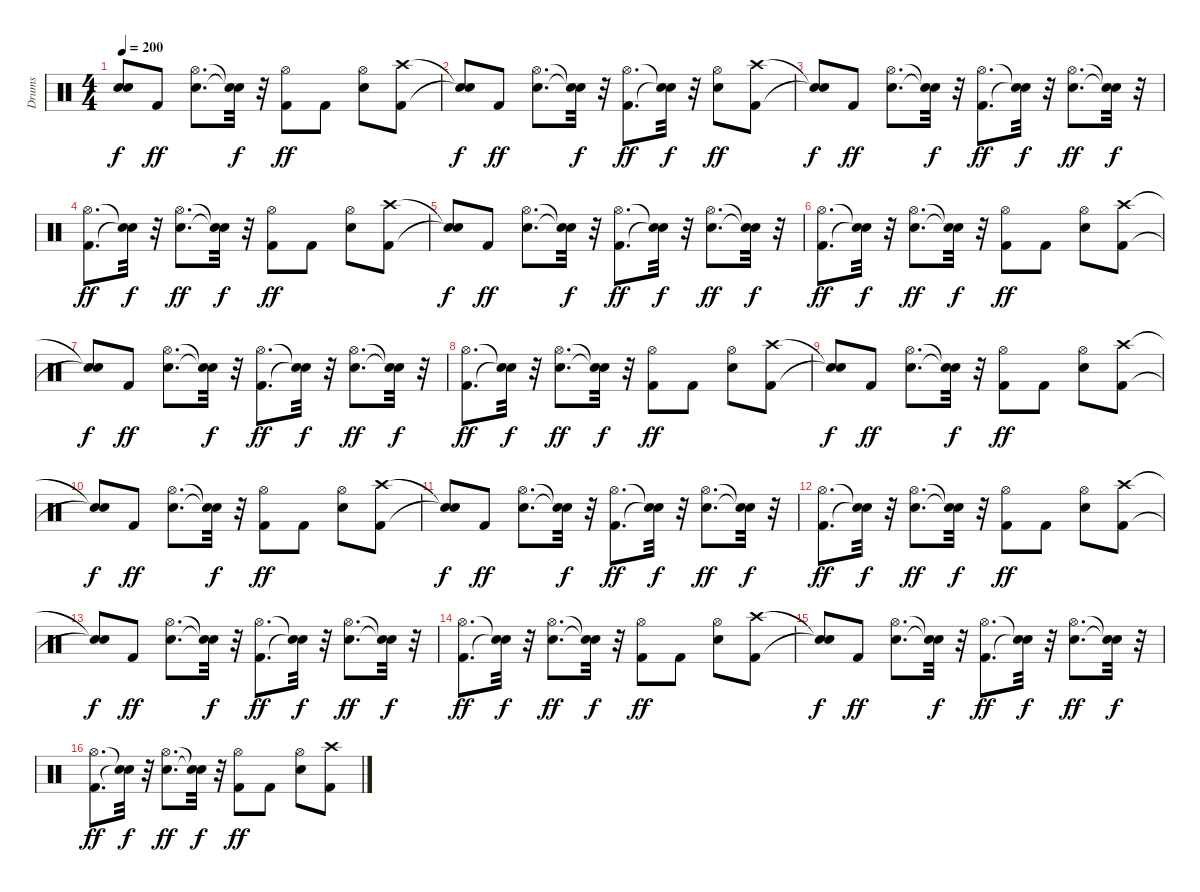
\track ("Drums" "Drums") {instrument percussion}
\staff {score}
\articulation defaults
\ts (4 4)
\tempo 200
\clef neutral
\ks c
("Snare (hit)"{t} "Snare (hit)"{t}).8{dy f} "Kick (hit) 2".8{dy ff} ("Snare (hit) 2" "Hi-Hat (open)").8{d} ("Snare (hit)"{t} "Snare (hit)"{t}).32{dy f} r.32 ("Kick (hit) 2" "Hi-Hat (open)").8{dy ff} "Kick (hit) 2".8 ("Snare (hit) 2" "Hi-Hat (open)").8 ("Kick (hit) 2" "Crash high (hit)").8 |
("Snare (hit)"{t} "Snare (hit)"{t}).8{dy f} "Kick (hit) 2".8{dy ff} ("Snare (hit) 2" "Hi-Hat (open)").8{d} ("Snare (hit)"{t} "Snare (hit)"{t}).32{dy f} r.32 ("Kick (hit) 2" "Hi-Hat (open)").8{d dy ff} ("Snare (hit)"{t} "Snare (hit)"{t}).32{dy f} r.32 ("Snare (hit) 2" "Hi-Hat (open)").8{dy ff} ("Kick (hit) 2" "Crash high (hit)").8 |
("Snare (hit)"{t} "Snare (hit)"{t}).8{dy f} "Kick (hit) 2".8{dy ff} ("Snare (hit) 2" "Hi-Hat (open)").8{d} ("Snare (hit)"{t} "Snare (hit)"{t}).32{dy f} r.32 ("Kick (hit) 2" "Hi-Hat (open)").8{d dy ff} ("Snare (hit)"{t} "Snare (hit)"{t}).32{dy f} r.32 ("Snare (hit) 2" "Hi-Hat (open)").8{d dy ff} ("Snare (hit)"{t} "Snare (hit)"{t}).32{dy f} r.32 |
("Kick (hit) 2" "Hi-Hat (open)").8{d dy ff} ("Snare (hit)"{t} "Snare (hit)"{t}).32{dy f} r.32 ("Snare (hit) 2" "Hi-Hat (open)").8{d dy ff} ("Snare (hit)"{t} "Snare (hit)"{t}).32{dy f} r.32 ("Kick (hit) 2" "Hi-Hat (open)").8{dy ff} "Kick (hit) 2".8 ("Snare (hit) 2" "Hi-Hat (open)").8 ("Kick (hit) 2" "Crash high (hit)").8 |
("Snare (hit)"{t} "Snare (hit)"{t}).8{dy f} "Kick (hit) 2".8{dy ff} ("Snare (hit) 2" "Hi-Hat (open)").8{d} ("Snare (hit)"{t} "Snare (hit)"{t}).32{dy f} r.32 ("Kick (hit) 2" "Hi-Hat (open)").8{d dy ff} ("Snare (hit)"{t} "Snare (hit)"{t}).32{dy f} r.32 ("Snare (hit) 2" "Hi-Hat (open)").8{d dy ff} ("Snare (hit)"{t} "Snare (hit)"{t}).32{dy f} r.32 |
("Kick (hit) 2" "Hi-Hat (open)").8{d dy ff} ("Snare (hit)"{t} "Snare (hit)"{t}).32{dy f} r.32 ("Snare (hit) 2" "Hi-Hat (open)").8{d dy ff} ("Snare (hit)"{t} "Snare (hit)"{t}).32{dy f} r.32 ("Kick (hit) 2" "Hi-Hat (open)").8{dy ff} "Kick (hit) 2".8 ("Snare (hit) 2" "Hi-Hat (open)").8 ("Kick (hit) 2" "Crash high (hit)").8 |
("Snare (hit)"{t} "Snare (hit)"{t}).8{dy f} "Kick (hit) 2".8{dy ff} ("Snare (hit) 2" "Hi-Hat (open)").8{d} ("Snare (hit)"{t} "Snare (hit)"{t}).32{dy f} r.32 ("Kick (hit) 2" "Hi-Hat (open)").8{d dy ff} ("Snare (hit)"{t} "Snare (hit)"{t}).32{dy f} r.32 ("Snare (hit) 2" "Hi-Hat (open)").8{d dy ff} ("Snare (hit)"{t} "Snare (hit)"{t}).32{dy f} r.32 |
("Kick (hit) 2" "Hi-Hat (open)").8{d dy ff} ("Snare (hit)"{t} "Snare (hit)"{t}).32{dy f} r.32 ("Snare (hit) 2" "Hi-Hat (open)").8{d dy ff} ("Snare (hit)"{t} "Snare (hit)"{t}).32{dy f} r.32 ("Kick (hit) 2" "Hi-Hat (open)").8{dy ff} "Kick (hit) 2".8 ("Snare (hit) 2" "Hi-Hat (open)").8 ("Kick (hit) 2" "Crash high (hit)").8 |
("Snare (hit)"{t} "Snare (hit)"{t}).8{dy f} "Kick (hit) 2".8{dy ff} ("Snare (hit) 2" "Hi-Hat (open)").8{d} ("Snare (hit)"{t} "Snare (hit)"{t}).32{dy f} r.32 ("Kick (hit) 2" "Hi-Hat (open)").8{dy ff} "Kick (hit) 2".8 ("Snare (hit) 2" "Hi-Hat (open)").8 ("Kick (hit) 2" "Crash high (hit)").8 |
("Snare (hit)"{t} "Snare (hit)"{t}).8{dy f} "Kick (hit) 2".8{dy ff} ("Snare (hit) 2" "Hi-Hat (open)").8{d} ("Snare (hit)"{t} "Snare (hit)"{t}).32{dy f} r.32 ("Kick (hit) 2" "Hi-Hat (open)").8{dy ff} "Kick (hit) 2".8 ("Snare (hit) 2" "Hi-Hat (open)").8 ("Kick (hit) 2" "Crash high (hit)").8 |
("Snare (hit)"{t} "Snare (hit)"{t}).8{dy f} "Kick (hit) 2".8{dy ff} ("Snare (hit) 2" "Hi-Hat (open)").8{d} ("Snare (hit)"{t} "Snare (hit)"{t}).32{dy f} r.32 ("Kick (hit) 2" "Hi-Hat (open)").8{d dy ff} ("Snare (hit)"{t} "Snare (hit)"{t}).32{dy f} r.32 ("Snare (hit) 2" "Hi-Hat (open)").8{d dy ff} ("Snare (hit)"{t} "Snare (hit)"{t}).32{dy f} r.32 |
("Kick (hit) 2" "Hi-Hat (open)").8{d dy ff} ("Snare (hit)"{t} "Snare (hit)"{t}).32{dy f} r.32 ("Snare (hit) 2" "Hi-Hat (open)").8{d dy ff} ("Snare (hit)"{t} "Snare (hit)"{t}).32{dy f} r.32 ("Kick (hit) 2" "Hi-Hat (open)").8{dy ff} "Kick (hit) 2".8 ("Snare (hit) 2" "Hi-Hat (open)").8 ("Kick (hit) 2" "Crash high (hit)").8 |
("Snare (hit)"{t} "Snare (hit)"{t}).8{dy f} "Kick (hit) 2".8{dy ff} ("Snare (hit) 2" "Hi-Hat (open)").8{d} ("Snare (hit)"{t} "Snare (hit)"{t}).32{dy f} r.32 ("Kick (hit) 2" "Hi-Hat (open)").8{d dy ff} ("Snare (hit)"{t} "Snare (hit)"{t}).32{dy f} r.32 ("Snare (hit) 2" "Hi-Hat (open)").8{d dy ff} ("Snare (hit)"{t} "Snare (hit)"{t}).32{dy f} r.32 |
("Kick (hit) 2" "Hi-Hat (open)").8{d dy ff} ("Snare (hit)"{t} "Snare (hit)"{t}).32{dy f} r.32 ("Snare (hit) 2" "Hi-Hat (open)").8{d dy ff} ("Snare (hit)"{t} "Snare (hit)"{t}).32{dy f} r.32 ("Kick (hit) 2" "Hi-Hat (open)").8{dy ff} "Kick (hit) 2".8 ("Snare (hit) 2" "Hi-Hat (open)").8 ("Kick (hit) 2" "Crash high (hit)").8 |
("Snare (hit)"{t} "Snare (hit)"{t}).8{dy f} "Kick (hit) 2".8{dy ff} ("Snare (hit) 2" "Hi-Hat (open)").8{d} ("Snare (hit)"{t} "Snare (hit)"{t}).32{dy f} r.32 ("Kick (hit) 2" "Hi-Hat (open)").8{d dy ff} ("Snare (hit)"{t} "Snare (hit)"{t}).32{dy f} r.32 ("Snare (hit) 2" "Hi-Hat (open)").8{d dy ff} ("Snare (hit)"{t} "Snare (hit)"{t}).32{dy f} r.32 |
("Kick (hit) 2" "Hi-Hat (open)").8{d dy ff} ("Snare (hit)"{t} "Snare (hit)"{t}).32{dy f} r.32 ("Snare (hit) 2" "Hi-Hat (open)").8{d dy ff} ("Snare (hit)"{t} "Snare (hit)"{t}).32{dy f} r.32 ("Kick (hit) 2" "Hi-Hat (open)").8{dy ff} "Kick (hit) 2".8 ("Snare (hit) 2" "Hi-Hat (open)").8 ("Kick (hit) 2" "Crash high (hit)").8
